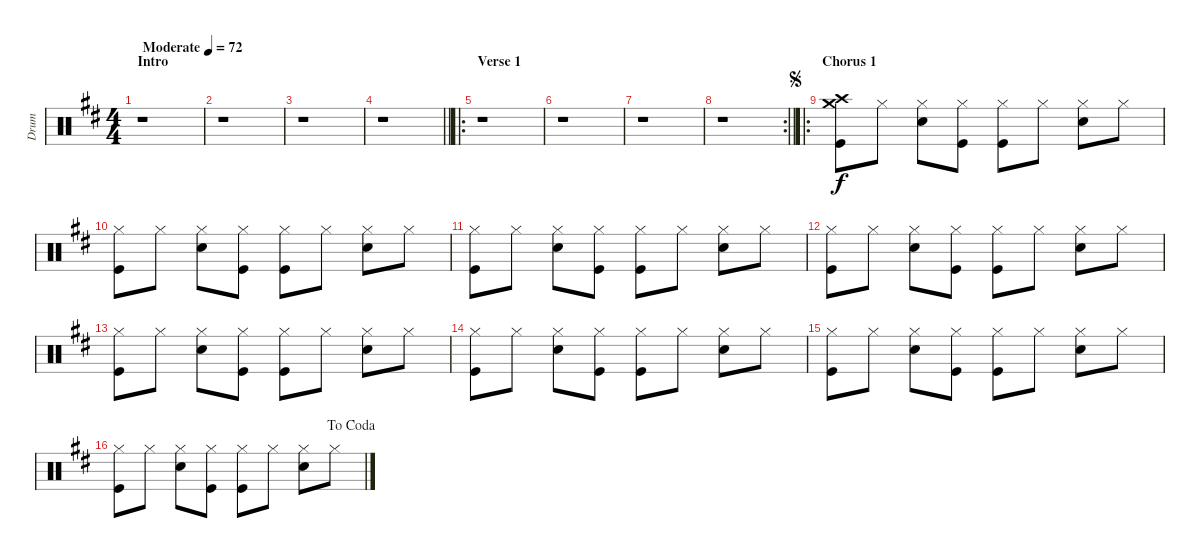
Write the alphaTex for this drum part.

\track ("Drum" "Drum") {instrument percussion}
\staff {score}
\articulation defaults
\ts (4 4)
\section ("" "Intro")
\tempo (72 "Moderate")
\clef neutral
\ks d
r.1{dy f} |
r.1 |
r.1 |
\barLineRight lightlight
r.1 |
\ro
\section ("" "Verse 1")
r.1 |
r.1 |
r.1 |
\rc 2
\barLineRight lightlight
r.1 |
\ro
\section ("" "Chorus 1")
\jump segno
("Crash high (hit)" "Crash medium (hit)" "Kick (hit)").8 "Hi-Hat (closed)".8 ("Hi-Hat (closed)" "Snare (hit) 2").8 ("Hi-Hat (closed)" "Kick (hit)").8 ("Hi-Hat (closed)" "Kick (hit)").8 "Hi-Hat (closed)".8 ("Hi-Hat (closed)" "Snare (hit) 2").8 "Hi-Hat (closed)".8 |
("Hi-Hat (closed)" "Kick (hit)").8 "Hi-Hat (closed)".8 ("Hi-Hat (closed)" "Snare (hit) 2").8 ("Hi-Hat (closed)" "Kick (hit)").8 ("Hi-Hat (closed)" "Kick (hit)").8 "Hi-Hat (closed)".8 ("Hi-Hat (closed)" "Snare (hit) 2").8 "Hi-Hat (closed)".8 |
("Hi-Hat (closed)" "Kick (hit)").8 "Hi-Hat (closed)".8 ("Hi-Hat (closed)" "Snare (hit) 2").8 ("Hi-Hat (closed)" "Kick (hit)").8 ("Hi-Hat (closed)" "Kick (hit)").8 "Hi-Hat (closed)".8 ("Hi-Hat (closed)" "Snare (hit) 2").8 "Hi-Hat (closed)".8 |
("Hi-Hat (closed)" "Kick (hit)").8 "Hi-Hat (closed)".8 ("Hi-Hat (closed)" "Snare (hit) 2").8 ("Hi-Hat (closed)" "Kick (hit)").8 ("Hi-Hat (closed)" "Kick (hit)").8 "Hi-Hat (closed)".8 ("Hi-Hat (closed)" "Snare (hit) 2").8 "Hi-Hat (closed)".8 |
("Hi-Hat (closed)" "Kick (hit)").8 "Hi-Hat (closed)".8 ("Hi-Hat (closed)" "Snare (hit) 2").8 ("Hi-Hat (closed)" "Kick (hit)").8 ("Hi-Hat (closed)" "Kick (hit)").8 "Hi-Hat (closed)".8 ("Hi-Hat (closed)" "Snare (hit) 2").8 "Hi-Hat (closed)".8 |
("Hi-Hat (closed)" "Kick (hit)").8 "Hi-Hat (closed)".8 ("Hi-Hat (closed)" "Snare (hit) 2").8 ("Hi-Hat (closed)" "Kick (hit)").8 ("Hi-Hat (closed)" "Kick (hit)").8 "Hi-Hat (closed)".8 ("Hi-Hat (closed)" "Snare (hit) 2").8 "Hi-Hat (closed)".8 |
("Hi-Hat (closed)" "Kick (hit)").8 "Hi-Hat (closed)".8 ("Hi-Hat (closed)" "Snare (hit) 2").8 ("Hi-Hat (closed)" "Kick (hit)").8 ("Hi-Hat (closed)" "Kick (hit)").8 "Hi-Hat (closed)".8 ("Hi-Hat (closed)" "Snare (hit) 2").8 "Hi-Hat (closed)".8 |
\jump dacoda
("Hi-Hat (closed)" "Kick (hit)").8 "Hi-Hat (closed)".8 ("Hi-Hat (closed)" "Snare (hit) 2").8 ("Hi-Hat (closed)" "Kick (hit)").8 ("Hi-Hat (closed)" "Kick (hit)").8 "Hi-Hat (closed)".8 ("Hi-Hat (closed)" "Snare (hit) 2").8 "Hi-Hat (closed)".8
